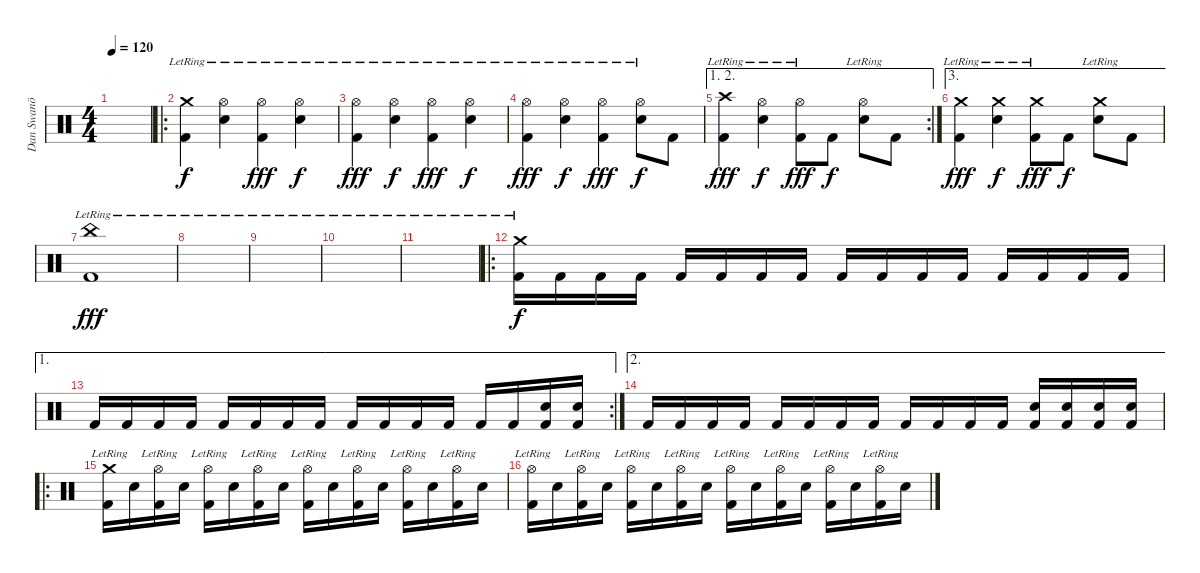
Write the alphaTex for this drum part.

\track ("Dan Swanö" "Dan Swanö") {instrument percussion}
\staff {score}
\articulation defaults
\ts (4 4)
\tempo 120
\clef neutral
\ks c
|
\ro
("Crash medium (hit)"{lr} "Kick (hit) 2").4 ("Hi-Hat (open)"{lr} "Electric Snare (hit)").4{dy f} ("Hi-Hat (open)"{lr} "Kick (hit) 2").4{dy fff} ("Hi-Hat (open)"{lr} "Electric Snare (hit)").4{dy f} |
("Hi-Hat (open)"{lr} "Kick (hit) 2").4{dy fff} ("Hi-Hat (open)"{lr} "Electric Snare (hit)").4{dy f} ("Hi-Hat (open)"{lr} "Kick (hit) 2").4{dy fff} ("Hi-Hat (open)"{lr} "Electric Snare (hit)").4{dy f} |
("Hi-Hat (open)"{lr} "Kick (hit) 2").4{dy fff} ("Hi-Hat (open)"{lr} "Electric Snare (hit)").4{dy f} ("Hi-Hat (open)"{lr} "Kick (hit) 2").4{dy fff} ("Hi-Hat (open)"{lr} "Electric Snare (hit)").8{dy f} "Kick (hit) 2".8 |
\ae (1 2)
\rc 2
("Crash high (hit)"{lr} "Kick (hit) 2").4{dy fff} ("Hi-Hat (open)"{lr} "Electric Snare (hit)").4{dy f} ("Hi-Hat (open)"{lr} "Kick (hit) 2").8{dy fff} "Kick (hit) 2".8{dy f} ("Hi-Hat (open)"{lr} "Electric Snare (hit)").8 "Kick (hit) 2".8 |
\ae 3
("Crash medium (hit)"{lr} "Kick (hit) 2").4{dy fff} ("Crash medium (hit)"{lr} "Electric Snare (hit)").4{dy f} ("Crash medium (hit)"{lr} "Kick (hit) 2").8{dy fff} "Kick (hit) 2".8{dy f} ("Crash medium (hit)"{lr} "Electric Snare (hit)").8 "Kick (hit) 2".8 |
("China (hit)"{lr} "Kick (hit) 2").1{dy fff} |
|
|
|
|
\ro
("Crash medium (hit)"{lr} "Kick (hit) 2").16{dy f} "Kick (hit) 2".16 "Kick (hit) 2".16 "Kick (hit) 2".16 "Kick (hit) 2".16 "Kick (hit) 2".16 "Kick (hit) 2".16 "Kick (hit) 2".16 "Kick (hit) 2".16 "Kick (hit) 2".16 "Kick (hit) 2".16 "Kick (hit) 2".16 "Kick (hit) 2".16 "Kick (hit) 2".16 "Kick (hit) 2".16 "Kick (hit) 2".16 |
\ae 1
\rc 2 "Kick (hit) 2".16 "Kick (hit) 2".16 "Kick (hit) 2".16 "Kick (hit) 2".16 "Kick (hit) 2".16 "Kick (hit) 2".16 "Kick (hit) 2".16 "Kick (hit) 2".16 "Kick (hit) 2".16 "Kick (hit) 2".16 "Kick (hit) 2".16 "Kick (hit) 2".16 "Kick (hit) 2".16 "Kick (hit) 2".16
("Electric Snare (hit)" "Kick (hit) 2").16 ("Electric Snare (hit)" "Kick (hit) 2").16 |
\ae 2 "Kick (hit) 2".16 "Kick (hit) 2".16 "Kick (hit) 2".16 "Kick (hit) 2".16 "Kick (hit) 2".16 "Kick (hit) 2".16 "Kick (hit) 2".16 "Kick (hit) 2".16 "Kick (hit) 2".16 "Kick (hit) 2".16 "Kick (hit) 2".16 "Kick (hit) 2".16
("Electric Snare (hit)" "Kick (hit) 2").16 ("Electric Snare (hit)" "Kick (hit) 2").16 ("Electric Snare (hit)" "Kick (hit) 2").16 ("Electric Snare (hit)" "Kick (hit) 2").16 |
\ro
("Crash medium (hit)"{lr} "Kick (hit) 2").16 "Electric Snare (hit)".16 ("Hi-Hat (open)"{lr} "Kick (hit) 2").16 "Electric Snare (hit)".16 ("Hi-Hat (open)"{lr} "Kick (hit) 2").16 "Electric Snare (hit)".16 ("Hi-Hat (open)"{lr} "Kick (hit) 2").16 "Electric Snare (hit)".16 ("Hi-Hat (open)"{lr} "Kick (hit) 2").16 "Electric Snare (hit)".16 ("Hi-Hat (open)"{lr} "Kick (hit) 2").16 "Electric Snare (hit)".16 ("Hi-Hat (open)"{lr} "Kick (hit) 2").16 "Electric Snare (hit)".16 ("Hi-Hat (open)"{lr} "Kick (hit) 2").16 "Electric Snare (hit)".16 |
("Hi-Hat (open)"{lr} "Kick (hit) 2").16 "Electric Snare (hit)".16 ("Hi-Hat (open)"{lr} "Kick (hit) 2").16 "Electric Snare (hit)".16 ("Hi-Hat (open)"{lr} "Kick (hit) 2").16 "Electric Snare (hit)".16 ("Hi-Hat (open)"{lr} "Kick (hit) 2").16 "Electric Snare (hit)".16 ("Hi-Hat (open)"{lr} "Kick (hit) 2").16 "Electric Snare (hit)".16 ("Hi-Hat (open)"{lr} "Kick (hit) 2").16 "Electric Snare (hit)".16 ("Hi-Hat (open)"{lr} "Kick (hit) 2").16 "Electric Snare (hit)".16 ("Hi-Hat (open)"{lr} "Kick (hit) 2").16 "Electric Snare (hit)".16
